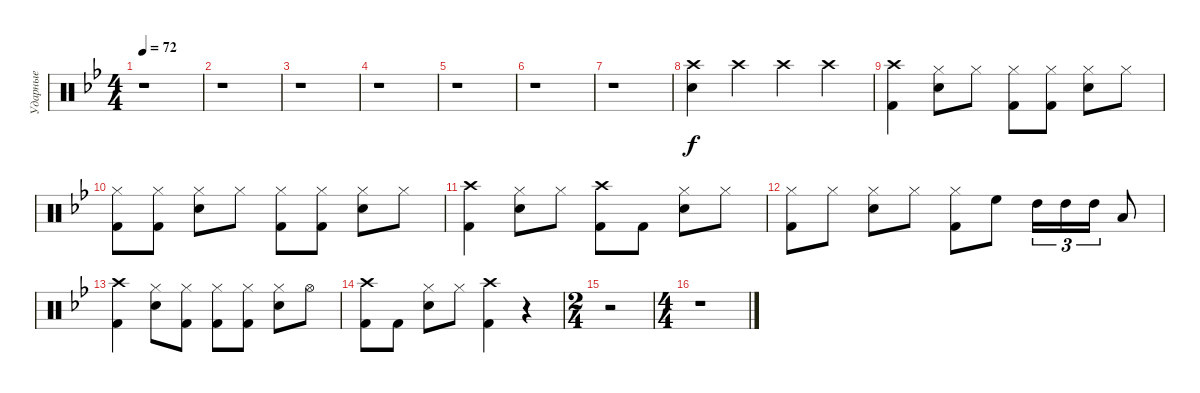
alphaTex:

\track ("Ударные" "Ударные") {instrument percussion}
\staff {score}
\articulation defaults
\ts (4 4)
\tempo 72
\clef neutral
\ks bb
r.1{dy f} |
r.1 |
r.1 |
r.1 |
r.1 |
r.1 |
r.1 |
("Crash high (hit)" "Snare (hit) 2").4 "Crash high (hit)".4 "Crash high (hit)".4 "Crash high (hit)".4 |
("Crash high (hit)" "Kick (hit) 2").4 ("Hi-Hat (closed)" "Snare (hit) 2").8 "Hi-Hat (closed)".8 ("Hi-Hat (closed)" "Kick (hit) 2").8 ("Hi-Hat (closed)" "Kick (hit) 2").8 ("Hi-Hat (closed)" "Snare (hit) 2").8 "Hi-Hat (closed)".8 |
("Hi-Hat (closed)" "Kick (hit) 2").8 ("Hi-Hat (closed)" "Kick (hit) 2").8 ("Hi-Hat (closed)" "Snare (hit) 2").8 "Hi-Hat (closed)".8 ("Hi-Hat (closed)" "Kick (hit) 2").8 ("Hi-Hat (closed)" "Kick (hit) 2").8 ("Hi-Hat (closed)" "Snare (hit) 2").8 "Hi-Hat (closed)".8 |
("Crash high (hit)" "Kick (hit) 2").4 ("Hi-Hat (closed)" "Snare (hit) 2").8 "Hi-Hat (closed)".8 ("Crash high (hit)" "Kick (hit) 2").8 "Kick (hit) 2".8 ("Hi-Hat (closed)" "Snare (hit) 2").8 "Hi-Hat (closed)".8 |
("Hi-Hat (closed)" "Kick (hit) 2").8 "Hi-Hat (closed)".8 ("Hi-Hat (closed)" "Snare (hit) 2").8 "Hi-Hat (closed)".8 ("Hi-Hat (closed)" "Kick (hit) 2").8 "High Floor Tom (hit)".8 "High Tom (hit)".16{tu (3 2)} "High Tom (hit)".16{tu (3 2)} "High Tom (hit)".16{tu (3 2)} "Low Tom (hit)".8 |
("Crash high (hit)" "Kick (hit) 2").4 ("Hi-Hat (closed)" "Snare (hit) 2").8 ("Hi-Hat (closed)" "Kick (hit) 2").8 ("Hi-Hat (closed)" "Kick (hit) 2").8 ("Hi-Hat (closed)" "Kick (hit) 2").8 ("Hi-Hat (closed)" "Snare (hit) 2").8 "Hi-Hat (open)".8 |
("Crash high (hit)" "Kick (hit) 2").8 "Kick (hit) 2".8 ("Hi-Hat (closed)" "Snare (hit) 2").8 "Hi-Hat (closed)".8 ("Crash high (hit)" "Kick (hit) 2").4 r.4 |
\ts (2 4)
r.2 |
\ts (4 4)
r.1
